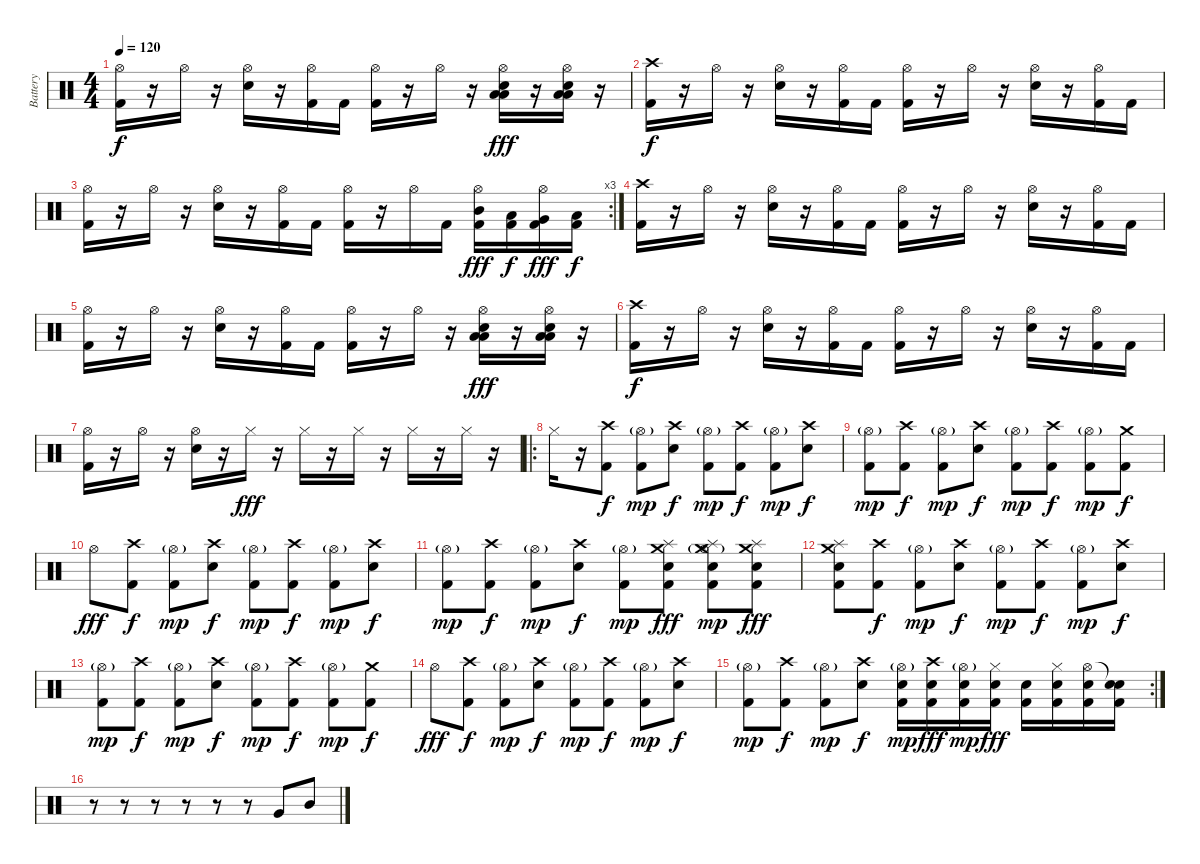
\track ("Battery" "Battery") {instrument percussion}
\staff {score}
\articulation defaults
\ts (4 4)
\tempo 120
\clef neutral
\ks c
("Hi-Hat (open)" "Kick (hit) 2").16{dy f} r.16 "Hi-Hat (open)".16 r.16 ("Hi-Hat (open)" "Electric Snare (hit)").16 r.16 ("Hi-Hat (open)" "Kick (hit) 2").16 "Kick (hit) 2".16 ("Hi-Hat (open)" "Kick (hit) 2").16 r.16 "Hi-Hat (open)".16 r.16 ("Hi-Hat (open)" "Low Tom (hit)" "Low Floor Tom (hit)" "Electric Snare (hit)").16{dy fff} r.16 ("Hi-Hat (open)" "Low Tom (hit)" "Low Floor Tom (hit)" "Electric Snare (hit)").16 r.16 |
("Crash high (hit)" "Kick (hit) 2").16{dy f} r.16 "Hi-Hat (open)".16 r.16 ("Hi-Hat (open)" "Electric Snare (hit)").16 r.16 ("Hi-Hat (open)" "Kick (hit) 2").16 "Kick (hit) 2".16 ("Hi-Hat (open)" "Kick (hit) 2").16 r.16 "Hi-Hat (open)".16 r.16 ("Hi-Hat (open)" "Electric Snare (hit)").16 r.16 ("Hi-Hat (open)" "Kick (hit) 2").16 "Kick (hit) 2".16 |
\rc 3
("Hi-Hat (open)" "Kick (hit) 2").16 r.16 "Hi-Hat (open)".16 r.16 ("Hi-Hat (open)" "Electric Snare (hit)").16 r.16 ("Hi-Hat (open)" "Kick (hit) 2").16 "Kick (hit) 2".16 ("Hi-Hat (open)" "Kick (hit) 2").16 r.16 "Hi-Hat (open)".16 "Kick (hit) 2".16 ("Hi-Hat (open)" "Mid Tom (hit)" "Kick (hit) 2").16{dy fff} ("Low Tom (hit)" "Kick (hit) 2").16{dy f} ("Hi-Hat (open)" "Very Low Tom (hit)" "Kick (hit) 2").16{dy fff} ("Low Floor Tom (hit)" "Kick (hit) 2").16{dy f} |
("Crash high (hit)" "Kick (hit) 2").16 r.16 "Hi-Hat (open)".16 r.16 ("Hi-Hat (open)" "Electric Snare (hit)").16 r.16 ("Hi-Hat (open)" "Kick (hit) 2").16 "Kick (hit) 2".16 ("Hi-Hat (open)" "Kick (hit) 2").16 r.16 "Hi-Hat (open)".16 r.16 ("Hi-Hat (open)" "Electric Snare (hit)").16 r.16 ("Hi-Hat (open)" "Kick (hit) 2").16 "Kick (hit) 2".16 |
("Hi-Hat (open)" "Kick (hit) 2").16 r.16 "Hi-Hat (open)".16 r.16 ("Hi-Hat (open)" "Electric Snare (hit)").16 r.16 ("Hi-Hat (open)" "Kick (hit) 2").16 "Kick (hit) 2".16 ("Hi-Hat (open)" "Kick (hit) 2").16 r.16 "Hi-Hat (open)".16 r.16 ("Hi-Hat (open)" "Low Tom (hit)" "Low Floor Tom (hit)" "Electric Snare (hit)").16{dy fff} r.16 ("Hi-Hat (open)" "Low Tom (hit)" "Low Floor Tom (hit)" "Electric Snare (hit)").16 r.16 |
("Crash high (hit)" "Kick (hit) 2").16{dy f} r.16 "Hi-Hat (open)".16 r.16 ("Hi-Hat (open)" "Electric Snare (hit)").16 r.16 ("Hi-Hat (open)" "Kick (hit) 2").16 "Kick (hit) 2".16 ("Hi-Hat (open)" "Kick (hit) 2").16 r.16 "Hi-Hat (open)".16 r.16 ("Hi-Hat (open)" "Electric Snare (hit)").16 r.16 ("Hi-Hat (open)" "Kick (hit) 2").16 "Kick (hit) 2".16 |
("Hi-Hat (open)" "Kick (hit) 2").16 r.16 "Hi-Hat (open)".16 r.16 ("Hi-Hat (open)" "Electric Snare (hit)").16 r.16 "Hi-Hat (closed)".16{dy fff} r.16 "Hi-Hat (closed)".16 r.16 "Hi-Hat (closed)".16 r.16 "Hi-Hat (closed)".16 r.16 "Hi-Hat (closed)".16 r.16 |
\ro "Hi-Hat (closed)".16
r.16 ("Crash high (hit)" "Kick (hit) 2").8{dy f} ("Hi-Hat (open)"{g} "Kick (hit) 2").8{dy mp} ("Crash high (hit)" "Snare (hit) 2").8{dy f} ("Hi-Hat (open)"{g} "Kick (hit) 2").8{dy mp} ("Crash high (hit)" "Kick (hit) 2").8{dy f} ("Hi-Hat (open)"{g} "Kick (hit) 2").8{dy mp} ("Crash high (hit)" "Snare (hit) 2").8{dy f} |
("Hi-Hat (open)"{g} "Kick (hit) 2").8{dy mp} ("Crash high (hit)" "Kick (hit) 2").8{dy f} ("Hi-Hat (open)"{g} "Kick (hit) 2").8{dy mp} ("Crash high (hit)" "Snare (hit) 2").8{dy f} ("Hi-Hat (open)"{g} "Kick (hit) 2").8{dy mp} ("Crash high (hit)" "Kick (hit) 2").8{dy f} ("Hi-Hat (open)"{g} "Kick (hit) 2").8{dy mp} ("Crash medium (hit)" "Kick (hit) 2").8{dy f} |
"Hi-Hat (open)".8{dy fff} ("Crash high (hit)" "Kick (hit) 2").8{dy f} ("Hi-Hat (open)"{g} "Kick (hit) 2").8{dy mp} ("Crash high (hit)" "Snare (hit) 2").8{dy f} ("Hi-Hat (open)"{g} "Kick (hit) 2").8{dy mp} ("Crash high (hit)" "Kick (hit) 2").8{dy f} ("Hi-Hat (open)"{g} "Kick (hit) 2").8{dy mp} ("Crash high (hit)" "Snare (hit) 2").8{dy f} |
("Hi-Hat (open)"{g} "Kick (hit) 2").8{dy mp} ("Crash high (hit)" "Kick (hit) 2").8{dy f} ("Hi-Hat (open)"{g} "Kick (hit) 2").8{dy mp} ("Crash high (hit)" "Snare (hit) 2").8{dy f} ("Hi-Hat (open)"{g} "Kick (hit) 2").8{dy mp} ("Splash (hit)" "Crash medium (hit)" "Kick (hit) 2" "Electric Snare (hit)").8{dy fff} ("Splash (hit)" "Crash medium (hit)" "Kick (hit) 2" "Hi-Hat (open)"{g} "Electric Snare (hit)").8{dy mp} ("Splash (hit)" "Crash medium (hit)" "Kick (hit) 2" "Electric Snare (hit)").8{dy fff} |
("Splash (hit)" "Crash medium (hit)" "Kick (hit) 2" "Electric Snare (hit)").8 ("Crash high (hit)" "Kick (hit) 2").8{dy f} ("Hi-Hat (open)"{g} "Kick (hit) 2").8{dy mp} ("Crash high (hit)" "Snare (hit) 2").8{dy f} ("Hi-Hat (open)"{g} "Kick (hit) 2").8{dy mp} ("Crash high (hit)" "Kick (hit) 2").8{dy f} ("Hi-Hat (open)"{g} "Kick (hit) 2").8{dy mp} ("Crash high (hit)" "Snare (hit) 2").8{dy f} |
("Hi-Hat (open)"{g} "Kick (hit) 2").8{dy mp} ("Crash high (hit)" "Kick (hit) 2").8{dy f} ("Hi-Hat (open)"{g} "Kick (hit) 2").8{dy mp} ("Crash high (hit)" "Snare (hit) 2").8{dy f} ("Hi-Hat (open)"{g} "Kick (hit) 2").8{dy mp} ("Crash high (hit)" "Kick (hit) 2").8{dy f} ("Hi-Hat (open)"{g} "Kick (hit) 2").8{dy mp} ("Crash medium (hit)" "Kick (hit) 2").8{dy f} |
"Hi-Hat (open)".8{dy fff} ("Crash high (hit)" "Kick (hit) 2").8{dy f} ("Hi-Hat (open)"{g} "Kick (hit) 2").8{dy mp} ("Crash high (hit)" "Snare (hit) 2").8{dy f} ("Hi-Hat (open)"{g} "Kick (hit) 2").8{dy mp} ("Crash high (hit)" "Kick (hit) 2").8{dy f} ("Hi-Hat (open)"{g} "Kick (hit) 2").8{dy mp} ("Crash high (hit)" "Snare (hit) 2").8{dy f} |
\rc 2
("Hi-Hat (open)"{g} "Kick (hit) 2").8{dy mp} ("Crash high (hit)" "Kick (hit) 2").8{dy f} ("Hi-Hat (open)"{g} "Kick (hit) 2").8{dy mp} ("Crash high (hit)" "Snare (hit) 2").8{dy f} ("Electric Snare (hit)" "Hi-Hat (open)"{g} "Kick (hit) 2").16{dy mp} ("Crash high (hit)" "Electric Snare (hit)" "Kick (hit) 2").16{dy fff} ("Electric Snare (hit)" "Hi-Hat (open)"{g} "Kick (hit) 2").16{dy mp} ("Hi-Hat (closed)" "Electric Snare (hit)" "Kick (hit) 2").16{dy fff} ("Electric Snare (hit)" "Kick (hit) 2").16 ("Hi-Hat (closed)" "Electric Snare (hit)" "Kick (hit) 2").16 ("Hi-Hat (open)" "Electric Snare (hit)" "Kick (hit) 2").16 ("Snare (hit)"{t} "Electric Snare (hit)" "Kick (hit) 2").16 |
r.8 r.8 r.8 r.8 r.8 r.8 "Very Low Tom (hit)".8 "Mid Tom (hit)".8
